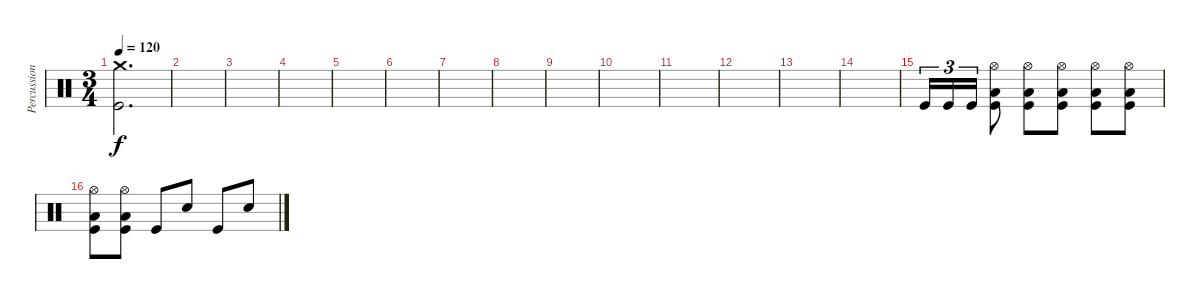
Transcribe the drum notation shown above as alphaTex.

\track ("Percussion" "Percussion") {instrument percussion}
\staff {score}
\articulation defaults
\ts (3 4)
\tempo 120
\clef neutral
\ks c
("Crash medium (hit)" "Kick (hit)").2{d dy f} |
|
|
|
|
|
|
|
|
|
|
|
|
|
"Kick (hit)".16{tu (3 2)} "Kick (hit)".16{tu (3 2)} "Kick (hit)".16{tu (3 2)} ("Low Floor Tom (hit)" "Hi-Hat (open)" "Kick (hit)").8 ("Low Floor Tom (hit)" "Hi-Hat (open)" "Kick (hit)").8 ("Low Floor Tom (hit)" "Hi-Hat (open)" "Kick (hit)").8 ("Low Floor Tom (hit)" "Hi-Hat (open)" "Kick (hit)").8 ("Low Floor Tom (hit)" "Hi-Hat (open)" "Kick (hit)").8 |
("Low Floor Tom (hit)" "Hi-Hat (open)" "Kick (hit)").8 ("Low Floor Tom (hit)" "Hi-Hat (open)" "Kick (hit)").8 "Kick (hit)".8 "Electric Snare (hit)".8 "Kick (hit)".8 "Electric Snare (hit)".8
